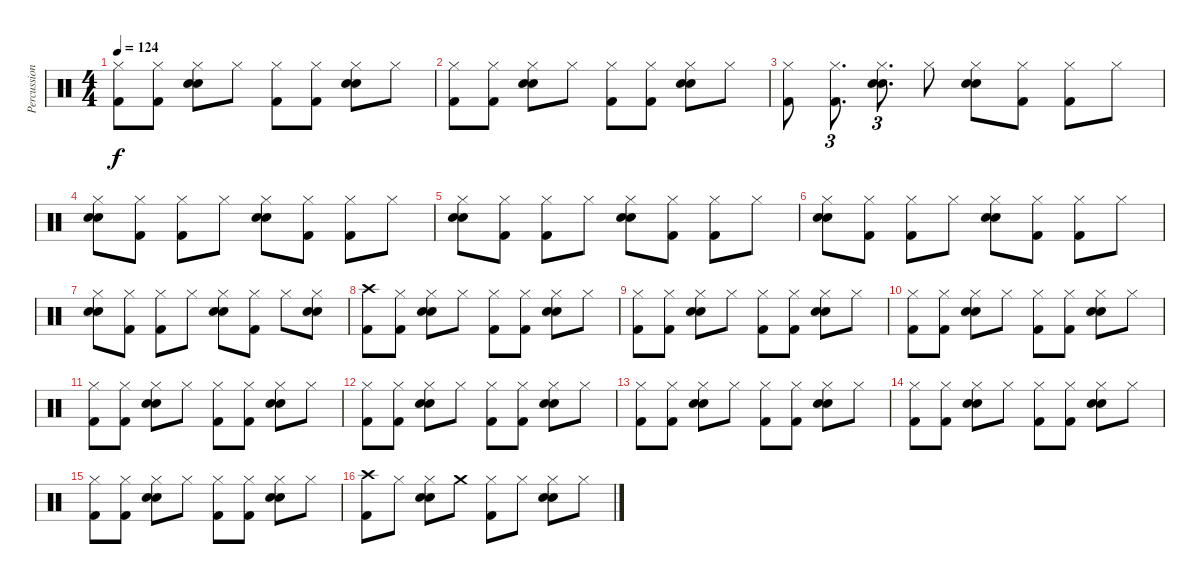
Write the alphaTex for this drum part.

\track ("Percussion" "Percussion") {instrument percussion}
\staff {score}
\articulation defaults
\ts (4 4)
\tempo 124
\clef neutral
\ks c
("Hi-Hat (closed)" "Kick (hit) 2").8{dy f} ("Hi-Hat (closed)" "Kick (hit) 2").8 ("Hi-Hat (closed)" "Snare (hit) 2" "Electric Snare (hit)").8 "Hi-Hat (closed)".8 ("Hi-Hat (closed)" "Kick (hit) 2").8 ("Hi-Hat (closed)" "Kick (hit) 2").8 ("Hi-Hat (closed)" "Snare (hit) 2" "Electric Snare (hit)").8 "Hi-Hat (closed)".8 |
("Hi-Hat (closed)" "Kick (hit) 2").8 ("Hi-Hat (closed)" "Kick (hit) 2").8 ("Hi-Hat (closed)" "Snare (hit) 2" "Electric Snare (hit)").8 "Hi-Hat (closed)".8 ("Hi-Hat (closed)" "Kick (hit) 2").8 ("Hi-Hat (closed)" "Kick (hit) 2").8 ("Hi-Hat (closed)" "Snare (hit) 2" "Electric Snare (hit)").8 "Hi-Hat (closed)".8 |
("Hi-Hat (closed)" "Kick (hit) 2").8 ("Hi-Hat (closed)" "Kick (hit) 2").8{d tu (3 2)} ("Hi-Hat (closed)" "Snare (hit) 2" "Electric Snare (hit)").8{d tu (3 2)} "Hi-Hat (closed)".8 ("Hi-Hat (closed)" "Snare (hit) 2" "Electric Snare (hit)").8 ("Hi-Hat (closed)" "Kick (hit) 2").8 ("Hi-Hat (closed)" "Kick (hit) 2").8 "Hi-Hat (closed)".8 |
("Hi-Hat (closed)" "Snare (hit) 2" "Electric Snare (hit)").8 ("Hi-Hat (closed)" "Kick (hit) 2").8 ("Hi-Hat (closed)" "Kick (hit) 2").8 "Hi-Hat (closed)".8 ("Hi-Hat (closed)" "Snare (hit) 2" "Electric Snare (hit)").8 ("Hi-Hat (closed)" "Kick (hit) 2").8 ("Hi-Hat (closed)" "Kick (hit) 2").8 "Hi-Hat (closed)".8 |
("Hi-Hat (closed)" "Snare (hit) 2" "Electric Snare (hit)").8 ("Hi-Hat (closed)" "Kick (hit) 2").8 ("Hi-Hat (closed)" "Kick (hit) 2").8 "Hi-Hat (closed)".8 ("Hi-Hat (closed)" "Snare (hit) 2" "Electric Snare (hit)").8 ("Hi-Hat (closed)" "Kick (hit) 2").8 ("Hi-Hat (closed)" "Kick (hit) 2").8 "Hi-Hat (closed)".8 |
("Hi-Hat (closed)" "Snare (hit) 2" "Electric Snare (hit)").8 ("Hi-Hat (closed)" "Kick (hit) 2").8 ("Hi-Hat (closed)" "Kick (hit) 2").8 "Hi-Hat (closed)".8 ("Hi-Hat (closed)" "Snare (hit) 2" "Electric Snare (hit)").8 ("Hi-Hat (closed)" "Kick (hit) 2").8 ("Hi-Hat (closed)" "Kick (hit) 2").8 "Hi-Hat (closed)".8 |
("Hi-Hat (closed)" "Snare (hit) 2" "Electric Snare (hit)").8 ("Hi-Hat (closed)" "Kick (hit) 2").8 ("Hi-Hat (closed)" "Kick (hit) 2").8 "Hi-Hat (closed)".8 ("Hi-Hat (closed)" "Snare (hit) 2" "Electric Snare (hit)").8 ("Hi-Hat (closed)" "Kick (hit) 2").8 "Hi-Hat (closed)".8 ("Hi-Hat (closed)" "Snare (hit) 2" "Electric Snare (hit)").8 |
("Crash high (hit)" "Kick (hit) 2").8 ("Hi-Hat (closed)" "Kick (hit) 2").8 ("Hi-Hat (closed)" "Snare (hit) 2" "Electric Snare (hit)").8 "Hi-Hat (closed)".8 ("Hi-Hat (closed)" "Kick (hit) 2").8 ("Hi-Hat (closed)" "Kick (hit) 2").8 ("Hi-Hat (closed)" "Snare (hit) 2" "Electric Snare (hit)").8 "Hi-Hat (closed)".8 |
("Hi-Hat (closed)" "Kick (hit) 2").8 ("Hi-Hat (closed)" "Kick (hit) 2").8 ("Hi-Hat (closed)" "Snare (hit) 2" "Electric Snare (hit)").8 "Hi-Hat (closed)".8 ("Hi-Hat (closed)" "Kick (hit) 2").8 ("Hi-Hat (closed)" "Kick (hit) 2").8 ("Hi-Hat (closed)" "Snare (hit) 2" "Electric Snare (hit)").8 "Hi-Hat (closed)".8 |
("Hi-Hat (closed)" "Kick (hit) 2").8 ("Hi-Hat (closed)" "Kick (hit) 2").8 ("Hi-Hat (closed)" "Snare (hit) 2" "Electric Snare (hit)").8 "Hi-Hat (closed)".8 ("Hi-Hat (closed)" "Kick (hit) 2").8 ("Hi-Hat (closed)" "Kick (hit) 2").8 ("Hi-Hat (closed)" "Snare (hit) 2" "Electric Snare (hit)").8 "Hi-Hat (closed)".8 |
("Hi-Hat (closed)" "Kick (hit) 2").8 ("Hi-Hat (closed)" "Kick (hit) 2").8 ("Hi-Hat (closed)" "Snare (hit) 2" "Electric Snare (hit)").8 "Hi-Hat (closed)".8 ("Hi-Hat (closed)" "Kick (hit) 2").8 ("Hi-Hat (closed)" "Kick (hit) 2").8 ("Hi-Hat (closed)" "Snare (hit) 2" "Electric Snare (hit)").8 "Hi-Hat (closed)".8 |
("Hi-Hat (closed)" "Kick (hit) 2").8 ("Hi-Hat (closed)" "Kick (hit) 2").8 ("Hi-Hat (closed)" "Snare (hit) 2" "Electric Snare (hit)").8 "Hi-Hat (closed)".8 ("Hi-Hat (closed)" "Kick (hit) 2").8 ("Hi-Hat (closed)" "Kick (hit) 2").8 ("Hi-Hat (closed)" "Snare (hit) 2" "Electric Snare (hit)").8 "Hi-Hat (closed)".8 |
("Hi-Hat (closed)" "Kick (hit) 2").8 ("Hi-Hat (closed)" "Kick (hit) 2").8 ("Hi-Hat (closed)" "Snare (hit) 2" "Electric Snare (hit)").8 "Hi-Hat (closed)".8 ("Hi-Hat (closed)" "Kick (hit) 2").8 ("Hi-Hat (closed)" "Kick (hit) 2").8 ("Hi-Hat (closed)" "Snare (hit) 2" "Electric Snare (hit)").8 "Hi-Hat (closed)".8 |
("Hi-Hat (closed)" "Kick (hit) 2").8 ("Hi-Hat (closed)" "Kick (hit) 2").8 ("Hi-Hat (closed)" "Snare (hit) 2" "Electric Snare (hit)").8 "Hi-Hat (closed)".8 ("Hi-Hat (closed)" "Kick (hit) 2").8 ("Hi-Hat (closed)" "Kick (hit) 2").8 ("Hi-Hat (closed)" "Snare (hit) 2" "Electric Snare (hit)").8 "Hi-Hat (closed)".8 |
("Hi-Hat (closed)" "Kick (hit) 2").8 ("Hi-Hat (closed)" "Kick (hit) 2").8 ("Hi-Hat (closed)" "Snare (hit) 2" "Electric Snare (hit)").8 "Hi-Hat (closed)".8 ("Hi-Hat (closed)" "Kick (hit) 2").8 ("Hi-Hat (closed)" "Kick (hit) 2").8 ("Hi-Hat (closed)" "Snare (hit) 2" "Electric Snare (hit)").8 "Hi-Hat (closed)".8 |
("Crash high (hit)" "Kick (hit) 2").8 "Hi-Hat (closed)".8 ("Hi-Hat (closed)" "Snare (hit) 2" "Electric Snare (hit)").8 "Crash medium (hit)".8 ("Hi-Hat (closed)" "Kick (hit) 2").8 "Hi-Hat (closed)".8 ("Hi-Hat (closed)" "Snare (hit) 2" "Electric Snare (hit)").8 "Hi-Hat (closed)".8
